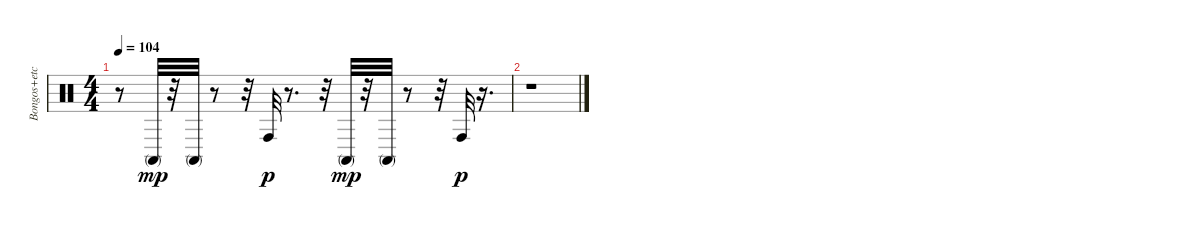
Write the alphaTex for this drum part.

\track ("Bongos+etc" "Bongos+etc") {instrument percussion}
\staff {score}
\articulation defaults
\ts (4 4)
\tempo 104
\clef neutral
\ks c
r.8{dy p} "Conga high (mute)".32{dy mp} r.32 "Conga high (mute)".32 r.8 r.32 "Conga high (hit)".32{dy p} r.8{d} r.32 "Conga high (mute)".32{dy mp} r.32 "Conga high (mute)".32 r.8 r.32 "Conga high (hit)".32{dy p} r.16{d} |
r.1
